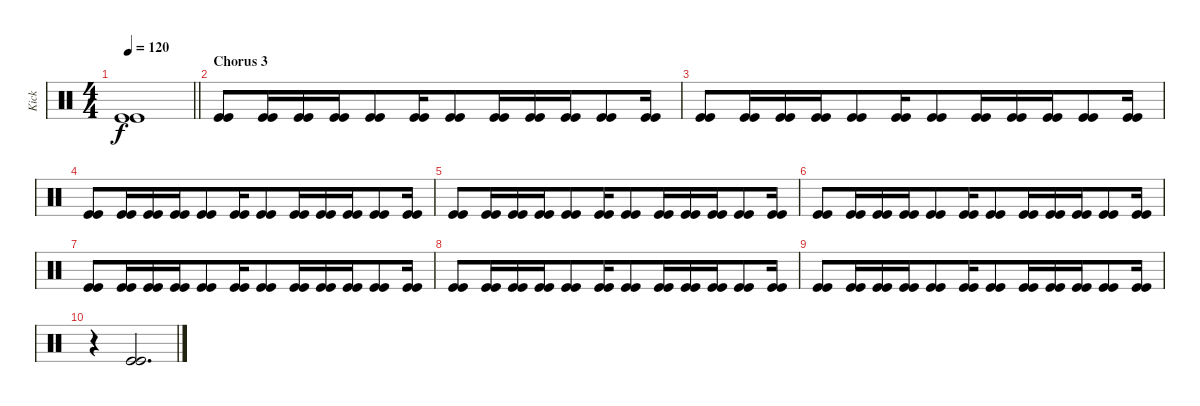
\track ("Kick" "Kick") {instrument percussion bank 2}
\staff {score}
\articulation defaults
\ts (4 4)
\tempo 120
\clef neutral
\barLineRight lightlight
\ks c
("Kick (hit)" "Kick (hit)").1{dy f} |
\section ("" "Chorus 3")
("Kick (hit)" "Kick (hit)").8{beam merge} ("Kick (hit)" "Kick (hit)").16{beam merge} ("Kick (hit)" "Kick (hit)").16{beam merge} ("Kick (hit)" "Kick (hit)").16{beam merge} ("Kick (hit)" "Kick (hit)").8{beam merge} ("Kick (hit)" "Kick (hit)").16{beam merge} ("Kick (hit)" "Kick (hit)").8{beam merge} ("Kick (hit)" "Kick (hit)").16{beam merge} ("Kick (hit)" "Kick (hit)").16{beam merge} ("Kick (hit)" "Kick (hit)").16{beam merge} ("Kick (hit)" "Kick (hit)").8{beam merge} ("Kick (hit)" "Kick (hit)").16 |
("Kick (hit)" "Kick (hit)").8{beam merge} ("Kick (hit)" "Kick (hit)").16{beam merge} ("Kick (hit)" "Kick (hit)").16{beam merge} ("Kick (hit)" "Kick (hit)").16{beam merge} ("Kick (hit)" "Kick (hit)").8{beam merge} ("Kick (hit)" "Kick (hit)").16{beam merge} ("Kick (hit)" "Kick (hit)").8{beam merge} ("Kick (hit)" "Kick (hit)").16{beam merge} ("Kick (hit)" "Kick (hit)").16{beam merge} ("Kick (hit)" "Kick (hit)").16{beam merge} ("Kick (hit)" "Kick (hit)").8{beam merge} ("Kick (hit)" "Kick (hit)").16 |
("Kick (hit)" "Kick (hit)").8{beam merge} ("Kick (hit)" "Kick (hit)").16{beam merge} ("Kick (hit)" "Kick (hit)").16{beam merge} ("Kick (hit)" "Kick (hit)").16{beam merge} ("Kick (hit)" "Kick (hit)").8{beam merge} ("Kick (hit)" "Kick (hit)").16{beam merge} ("Kick (hit)" "Kick (hit)").8{beam merge} ("Kick (hit)" "Kick (hit)").16{beam merge} ("Kick (hit)" "Kick (hit)").16{beam merge} ("Kick (hit)" "Kick (hit)").16{beam merge} ("Kick (hit)" "Kick (hit)").8{beam merge} ("Kick (hit)" "Kick (hit)").16 |
("Kick (hit)" "Kick (hit)").8{beam merge} ("Kick (hit)" "Kick (hit)").16{beam merge} ("Kick (hit)" "Kick (hit)").16{beam merge} ("Kick (hit)" "Kick (hit)").16{beam merge} ("Kick (hit)" "Kick (hit)").8{beam merge} ("Kick (hit)" "Kick (hit)").16{beam merge} ("Kick (hit)" "Kick (hit)").8{beam merge} ("Kick (hit)" "Kick (hit)").16{beam merge} ("Kick (hit)" "Kick (hit)").16{beam merge} ("Kick (hit)" "Kick (hit)").16{beam merge} ("Kick (hit)" "Kick (hit)").8{beam merge} ("Kick (hit)" "Kick (hit)").16 |
("Kick (hit)" "Kick (hit)").8{beam merge} ("Kick (hit)" "Kick (hit)").16{beam merge} ("Kick (hit)" "Kick (hit)").16{beam merge} ("Kick (hit)" "Kick (hit)").16{beam merge} ("Kick (hit)" "Kick (hit)").8{beam merge} ("Kick (hit)" "Kick (hit)").16{beam merge} ("Kick (hit)" "Kick (hit)").8{beam merge} ("Kick (hit)" "Kick (hit)").16{beam merge} ("Kick (hit)" "Kick (hit)").16{beam merge} ("Kick (hit)" "Kick (hit)").16{beam merge} ("Kick (hit)" "Kick (hit)").8{beam merge} ("Kick (hit)" "Kick (hit)").16 |
("Kick (hit)" "Kick (hit)").8{beam merge} ("Kick (hit)" "Kick (hit)").16{beam merge} ("Kick (hit)" "Kick (hit)").16{beam merge} ("Kick (hit)" "Kick (hit)").16{beam merge} ("Kick (hit)" "Kick (hit)").8{beam merge} ("Kick (hit)" "Kick (hit)").16{beam merge} ("Kick (hit)" "Kick (hit)").8{beam merge} ("Kick (hit)" "Kick (hit)").16{beam merge} ("Kick (hit)" "Kick (hit)").16{beam merge} ("Kick (hit)" "Kick (hit)").16{beam merge} ("Kick (hit)" "Kick (hit)").8{beam merge} ("Kick (hit)" "Kick (hit)").16 |
("Kick (hit)" "Kick (hit)").8{beam merge} ("Kick (hit)" "Kick (hit)").16{beam merge} ("Kick (hit)" "Kick (hit)").16{beam merge} ("Kick (hit)" "Kick (hit)").16{beam merge} ("Kick (hit)" "Kick (hit)").8{beam merge} ("Kick (hit)" "Kick (hit)").16{beam merge} ("Kick (hit)" "Kick (hit)").8{beam merge} ("Kick (hit)" "Kick (hit)").16{beam merge} ("Kick (hit)" "Kick (hit)").16{beam merge} ("Kick (hit)" "Kick (hit)").16{beam merge} ("Kick (hit)" "Kick (hit)").8{beam merge} ("Kick (hit)" "Kick (hit)").16 |
("Kick (hit)" "Kick (hit)").8{beam merge} ("Kick (hit)" "Kick (hit)").16{beam merge} ("Kick (hit)" "Kick (hit)").16{beam merge} ("Kick (hit)" "Kick (hit)").16{beam merge} ("Kick (hit)" "Kick (hit)").8{beam merge} ("Kick (hit)" "Kick (hit)").16{beam merge} ("Kick (hit)" "Kick (hit)").8{beam merge} ("Kick (hit)" "Kick (hit)").16{beam merge} ("Kick (hit)" "Kick (hit)").16{beam merge} ("Kick (hit)" "Kick (hit)").16{beam merge} ("Kick (hit)" "Kick (hit)").8{beam merge} ("Kick (hit)" "Kick (hit)").16 |
r.4{beam merge} ("Kick (hit)" "Kick (hit)").2{d}
